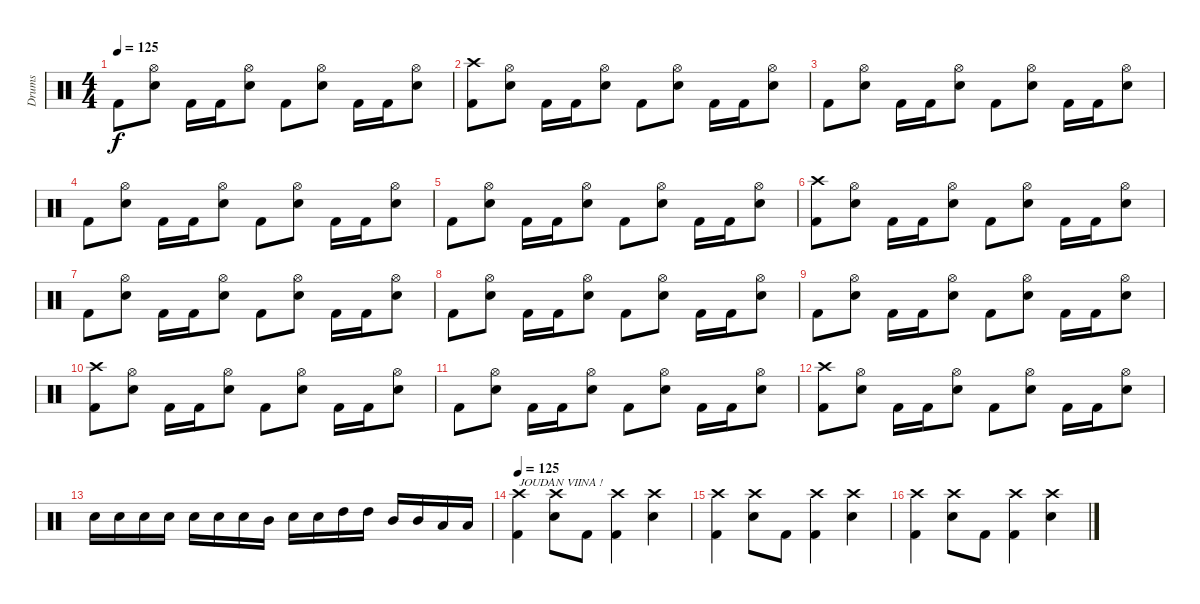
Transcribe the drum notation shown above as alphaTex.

\track ("Drums" "Drums") {instrument percussion}
\staff {score}
\articulation defaults
\ts (4 4)
\tempo 125
\clef neutral
\ks c "Kick (hit) 2".8{dy f}
("Hi-Hat (open)" "Electric Snare (hit)").8 "Kick (hit) 2".16 "Kick (hit) 2".16 ("Hi-Hat (open)" "Electric Snare (hit)").8 "Kick (hit) 2".8 ("Hi-Hat (open)" "Electric Snare (hit)").8 "Kick (hit) 2".16 "Kick (hit) 2".16 ("Hi-Hat (open)" "Electric Snare (hit)").8 |
("Crash high (hit)" "Kick (hit) 2").8 ("Hi-Hat (open)" "Electric Snare (hit)").8 "Kick (hit) 2".16 "Kick (hit) 2".16 ("Hi-Hat (open)" "Electric Snare (hit)").8 "Kick (hit) 2".8 ("Hi-Hat (open)" "Electric Snare (hit)").8 "Kick (hit) 2".16 "Kick (hit) 2".16 ("Hi-Hat (open)" "Electric Snare (hit)").8 |
"Kick (hit) 2".8 ("Hi-Hat (open)" "Electric Snare (hit)").8 "Kick (hit) 2".16 "Kick (hit) 2".16 ("Hi-Hat (open)" "Electric Snare (hit)").8 "Kick (hit) 2".8 ("Hi-Hat (open)" "Electric Snare (hit)").8 "Kick (hit) 2".16 "Kick (hit) 2".16 ("Hi-Hat (open)" "Electric Snare (hit)").8 |
"Kick (hit) 2".8 ("Hi-Hat (open)" "Electric Snare (hit)").8 "Kick (hit) 2".16 "Kick (hit) 2".16 ("Hi-Hat (open)" "Electric Snare (hit)").8 "Kick (hit) 2".8 ("Hi-Hat (open)" "Electric Snare (hit)").8 "Kick (hit) 2".16 "Kick (hit) 2".16 ("Hi-Hat (open)" "Electric Snare (hit)").8 |
"Kick (hit) 2".8 ("Hi-Hat (open)" "Electric Snare (hit)").8 "Kick (hit) 2".16 "Kick (hit) 2".16 ("Hi-Hat (open)" "Electric Snare (hit)").8 "Kick (hit) 2".8 ("Hi-Hat (open)" "Electric Snare (hit)").8 "Kick (hit) 2".16 "Kick (hit) 2".16 ("Hi-Hat (open)" "Electric Snare (hit)").8 |
("Crash high (hit)" "Kick (hit) 2").8 ("Hi-Hat (open)" "Electric Snare (hit)").8 "Kick (hit) 2".16 "Kick (hit) 2".16 ("Hi-Hat (open)" "Electric Snare (hit)").8 "Kick (hit) 2".8 ("Hi-Hat (open)" "Electric Snare (hit)").8 "Kick (hit) 2".16 "Kick (hit) 2".16 ("Hi-Hat (open)" "Electric Snare (hit)").8 |
"Kick (hit) 2".8 ("Hi-Hat (open)" "Electric Snare (hit)").8 "Kick (hit) 2".16 "Kick (hit) 2".16 ("Hi-Hat (open)" "Electric Snare (hit)").8 "Kick (hit) 2".8 ("Hi-Hat (open)" "Electric Snare (hit)").8 "Kick (hit) 2".16 "Kick (hit) 2".16 ("Hi-Hat (open)" "Electric Snare (hit)").8 |
"Kick (hit) 2".8 ("Hi-Hat (open)" "Electric Snare (hit)").8 "Kick (hit) 2".16 "Kick (hit) 2".16 ("Hi-Hat (open)" "Electric Snare (hit)").8 "Kick (hit) 2".8 ("Hi-Hat (open)" "Electric Snare (hit)").8 "Kick (hit) 2".16 "Kick (hit) 2".16 ("Hi-Hat (open)" "Electric Snare (hit)").8 |
"Kick (hit) 2".8 ("Hi-Hat (open)" "Electric Snare (hit)").8 "Kick (hit) 2".16 "Kick (hit) 2".16 ("Hi-Hat (open)" "Electric Snare (hit)").8 "Kick (hit) 2".8 ("Hi-Hat (open)" "Electric Snare (hit)").8 "Kick (hit) 2".16 "Kick (hit) 2".16 ("Hi-Hat (open)" "Electric Snare (hit)").8 |
("Crash high (hit)" "Kick (hit) 2").8 ("Hi-Hat (open)" "Electric Snare (hit)").8 "Kick (hit) 2".16 "Kick (hit) 2".16 ("Hi-Hat (open)" "Electric Snare (hit)").8 "Kick (hit) 2".8 ("Hi-Hat (open)" "Electric Snare (hit)").8 "Kick (hit) 2".16 "Kick (hit) 2".16 ("Hi-Hat (open)" "Electric Snare (hit)").8 |
"Kick (hit) 2".8 ("Hi-Hat (open)" "Electric Snare (hit)").8 "Kick (hit) 2".16 "Kick (hit) 2".16 ("Hi-Hat (open)" "Electric Snare (hit)").8 "Kick (hit) 2".8 ("Hi-Hat (open)" "Electric Snare (hit)").8 "Kick (hit) 2".16 "Kick (hit) 2".16 ("Hi-Hat (open)" "Electric Snare (hit)").8 |
("Crash high (hit)" "Kick (hit) 2").8 ("Hi-Hat (open)" "Electric Snare (hit)").8 "Kick (hit) 2".16 "Kick (hit) 2".16 ("Hi-Hat (open)" "Electric Snare (hit)").8 "Kick (hit) 2".8 ("Hi-Hat (open)" "Electric Snare (hit)").8 "Kick (hit) 2".16 "Kick (hit) 2".16 ("Hi-Hat (open)" "Electric Snare (hit)").8 |
"Electric Snare (hit)".16 "Electric Snare (hit)".16 "Electric Snare (hit)".16 "Electric Snare (hit)".16 "Electric Snare (hit)".16 "Electric Snare (hit)".16 "Electric Snare (hit)".16 "Mid Tom (hit)".16 "Electric Snare (hit)".16 "Electric Snare (hit)".16 "High Tom (hit)".16 "High Tom (hit)".16 "Mid Tom (hit)".16 "Mid Tom (hit)".16 "Low Tom (hit)".16 "Low Tom (hit)".16 |
\tempo 125
("Crash high (hit)" "Kick (hit) 2").4{txt "JOUDAN VIINA !"} ("Crash high (hit)" "Electric Snare (hit)").8 "Kick (hit) 2".8 ("Crash high (hit)" "Kick (hit) 2").4 ("Crash high (hit)" "Electric Snare (hit)").4 |
("Crash high (hit)" "Kick (hit) 2").4 ("Crash high (hit)" "Electric Snare (hit)").8 "Kick (hit) 2".8 ("Crash high (hit)" "Kick (hit) 2").4 ("Crash high (hit)" "Electric Snare (hit)").4 |
("Crash high (hit)" "Kick (hit) 2").4 ("Crash high (hit)" "Electric Snare (hit)").8 "Kick (hit) 2".8 ("Crash high (hit)" "Kick (hit) 2").4 ("Crash high (hit)" "Electric Snare (hit)").4
